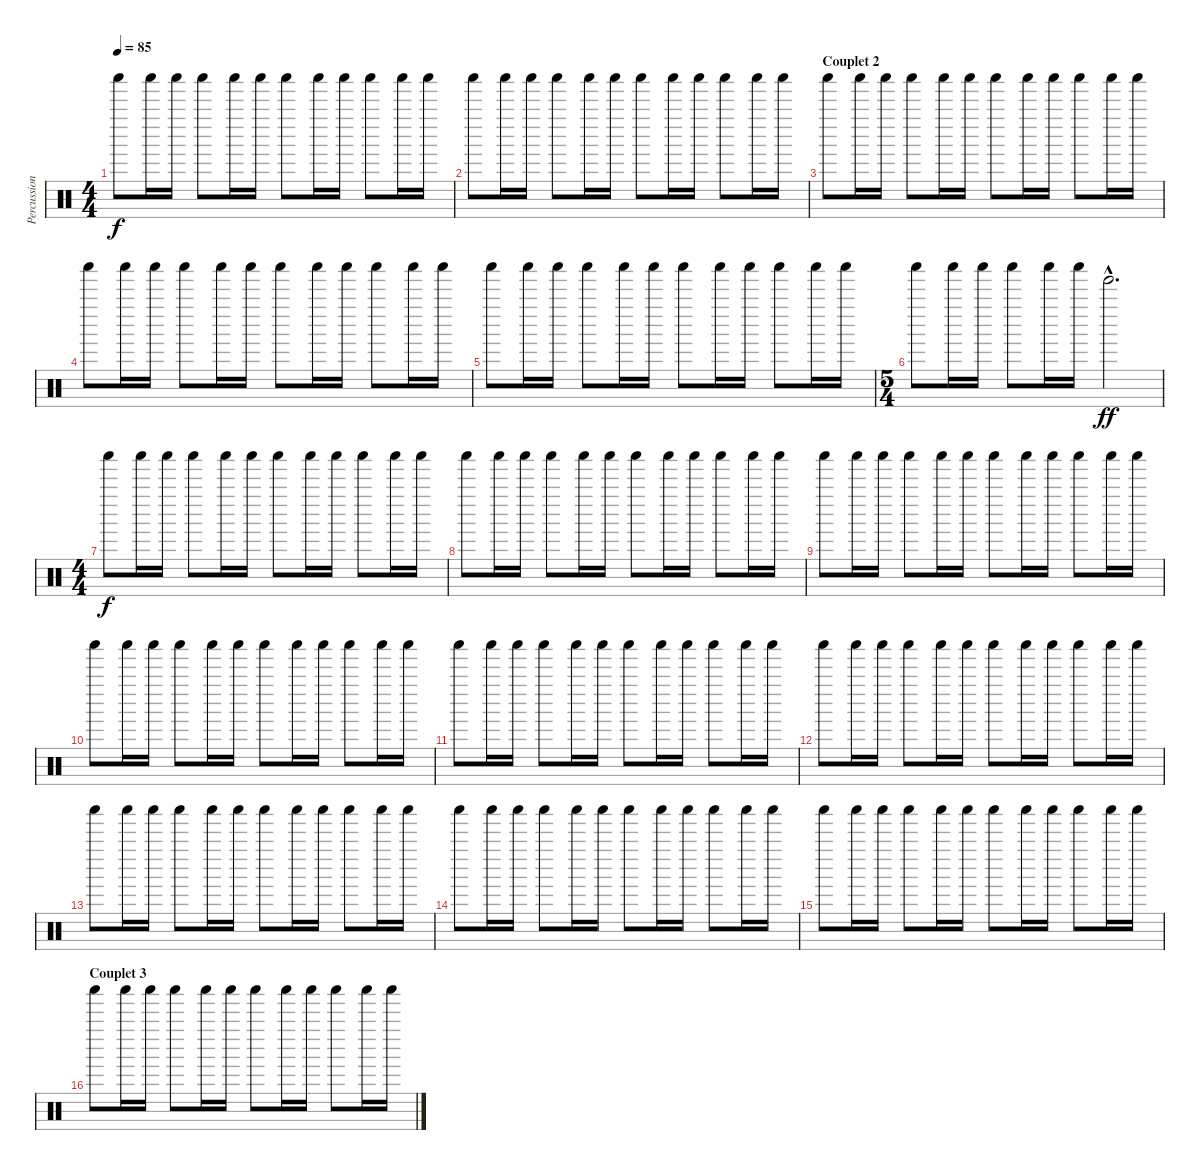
\track ("Percussion" "Percussion") {instrument percussion}
\staff {score}
\articulation defaults
\ts (4 4)
\tempo 85
\clef neutral
\ks c "Shaker (hit)".8{dy f} "Shaker (hit)".16 "Shaker (hit)".16 "Shaker (hit)".8 "Shaker (hit)".16 "Shaker (hit)".16 "Shaker (hit)".8 "Shaker (hit)".16 "Shaker (hit)".16 "Shaker (hit)".8 "Shaker (hit)".16 "Shaker (hit)".16
|
"Shaker (hit)".8 "Shaker (hit)".16 "Shaker (hit)".16 "Shaker (hit)".8 "Shaker (hit)".16 "Shaker (hit)".16 "Shaker (hit)".8 "Shaker (hit)".16 "Shaker (hit)".16 "Shaker (hit)".8 "Shaker (hit)".16 "Shaker (hit)".16 |
\section ("" "Couplet 2")
"Shaker (hit)".8 "Shaker (hit)".16 "Shaker (hit)".16 "Shaker (hit)".8 "Shaker (hit)".16 "Shaker (hit)".16 "Shaker (hit)".8 "Shaker (hit)".16 "Shaker (hit)".16 "Shaker (hit)".8 "Shaker (hit)".16 "Shaker (hit)".16 |
"Shaker (hit)".8 "Shaker (hit)".16 "Shaker (hit)".16 "Shaker (hit)".8 "Shaker (hit)".16 "Shaker (hit)".16 "Shaker (hit)".8 "Shaker (hit)".16 "Shaker (hit)".16 "Shaker (hit)".8 "Shaker (hit)".16 "Shaker (hit)".16 |
"Shaker (hit)".8 "Shaker (hit)".16 "Shaker (hit)".16 "Shaker (hit)".8 "Shaker (hit)".16 "Shaker (hit)".16 "Shaker (hit)".8 "Shaker (hit)".16 "Shaker (hit)".16 "Shaker (hit)".8 "Shaker (hit)".16 "Shaker (hit)".16 |
\ts (5 4)
"Shaker (hit)".8 "Shaker (hit)".16 "Shaker (hit)".16 "Shaker (hit)".8 "Shaker (hit)".16 "Shaker (hit)".16 "Tinkle Bell (hit)"{hac}.2{d dy ff} |
\ts (4 4)
"Shaker (hit)".8{dy f} "Shaker (hit)".16 "Shaker (hit)".16 "Shaker (hit)".8 "Shaker (hit)".16 "Shaker (hit)".16 "Shaker (hit)".8 "Shaker (hit)".16 "Shaker (hit)".16 "Shaker (hit)".8 "Shaker (hit)".16 "Shaker (hit)".16 |
"Shaker (hit)".8 "Shaker (hit)".16 "Shaker (hit)".16 "Shaker (hit)".8 "Shaker (hit)".16 "Shaker (hit)".16 "Shaker (hit)".8 "Shaker (hit)".16 "Shaker (hit)".16 "Shaker (hit)".8 "Shaker (hit)".16 "Shaker (hit)".16 |
"Shaker (hit)".8 "Shaker (hit)".16 "Shaker (hit)".16 "Shaker (hit)".8 "Shaker (hit)".16 "Shaker (hit)".16 "Shaker (hit)".8 "Shaker (hit)".16 "Shaker (hit)".16 "Shaker (hit)".8 "Shaker (hit)".16 "Shaker (hit)".16 |
"Shaker (hit)".8 "Shaker (hit)".16 "Shaker (hit)".16 "Shaker (hit)".8 "Shaker (hit)".16 "Shaker (hit)".16 "Shaker (hit)".8 "Shaker (hit)".16 "Shaker (hit)".16 "Shaker (hit)".8 "Shaker (hit)".16 "Shaker (hit)".16 |
"Shaker (hit)".8 "Shaker (hit)".16 "Shaker (hit)".16 "Shaker (hit)".8 "Shaker (hit)".16 "Shaker (hit)".16 "Shaker (hit)".8 "Shaker (hit)".16 "Shaker (hit)".16 "Shaker (hit)".8 "Shaker (hit)".16 "Shaker (hit)".16 |
"Shaker (hit)".8 "Shaker (hit)".16 "Shaker (hit)".16 "Shaker (hit)".8 "Shaker (hit)".16 "Shaker (hit)".16 "Shaker (hit)".8 "Shaker (hit)".16 "Shaker (hit)".16 "Shaker (hit)".8 "Shaker (hit)".16 "Shaker (hit)".16 |
"Shaker (hit)".8 "Shaker (hit)".16 "Shaker (hit)".16 "Shaker (hit)".8 "Shaker (hit)".16 "Shaker (hit)".16 "Shaker (hit)".8 "Shaker (hit)".16 "Shaker (hit)".16 "Shaker (hit)".8 "Shaker (hit)".16 "Shaker (hit)".16 |
"Shaker (hit)".8 "Shaker (hit)".16 "Shaker (hit)".16 "Shaker (hit)".8 "Shaker (hit)".16 "Shaker (hit)".16 "Shaker (hit)".8 "Shaker (hit)".16 "Shaker (hit)".16 "Shaker (hit)".8 "Shaker (hit)".16 "Shaker (hit)".16 |
"Shaker (hit)".8 "Shaker (hit)".16 "Shaker (hit)".16 "Shaker (hit)".8 "Shaker (hit)".16 "Shaker (hit)".16 "Shaker (hit)".8 "Shaker (hit)".16 "Shaker (hit)".16 "Shaker (hit)".8 "Shaker (hit)".16 "Shaker (hit)".16 |
\section ("" "Couplet 3")
"Shaker (hit)".8 "Shaker (hit)".16 "Shaker (hit)".16 "Shaker (hit)".8 "Shaker (hit)".16 "Shaker (hit)".16 "Shaker (hit)".8 "Shaker (hit)".16 "Shaker (hit)".16 "Shaker (hit)".8 "Shaker (hit)".16 "Shaker (hit)".16
